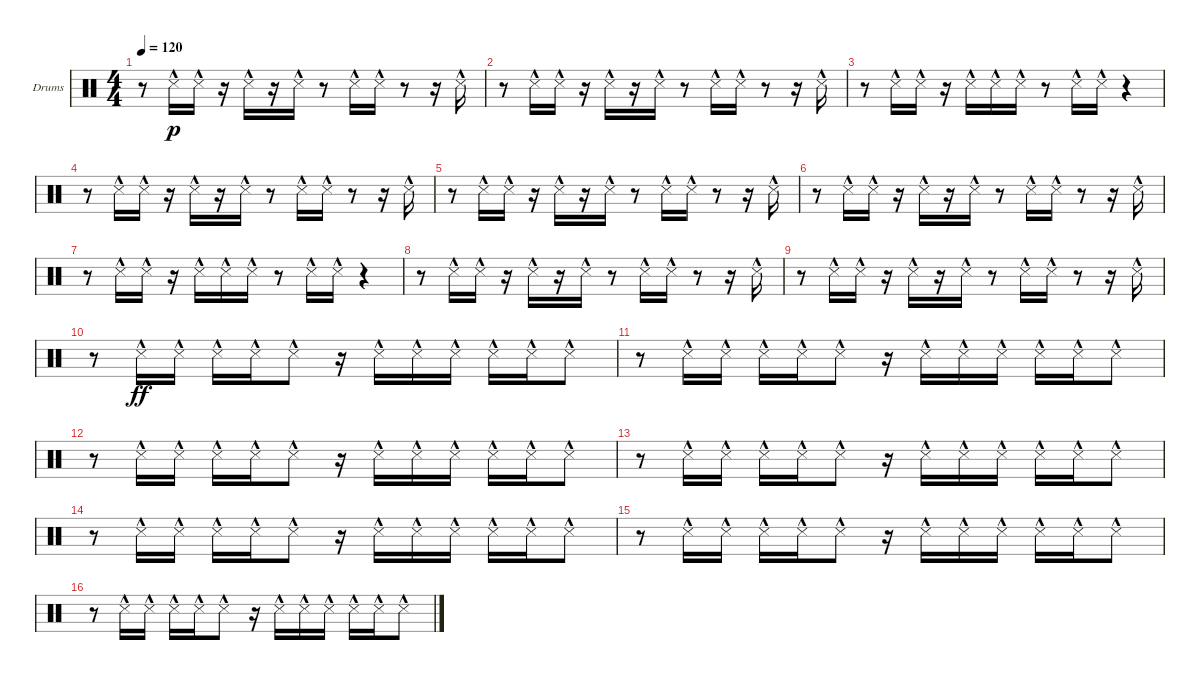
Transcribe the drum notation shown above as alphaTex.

\defaultSystemsLayout 4
\bracketExtendMode nobrackets
\firstSystemTrackNameOrientation horizontal
\otherSystemsTrackNameOrientation horizontal
\track ("Drumkit" "Drums") {instrument percussion}
\staff {score}
\articulation defaults
\ts (4 4)
\tempo 120
\clef neutral
\ks c
r.8{dy p} "Snare (side stick) 3"{hac}.16 "Snare (side stick) 3"{hac}.16 r.16 "Snare (side stick) 3"{hac}.16 r.16 "Snare (side stick) 3"{hac}.16 r.8 "Snare (side stick) 3"{hac}.16 "Snare (side stick) 3"{hac}.16 r.8 r.16 "Snare (side stick) 3"{hac}.16 |
r.8 "Snare (side stick) 3"{hac}.16 "Snare (side stick) 3"{hac}.16 r.16 "Snare (side stick) 3"{hac}.16 r.16 "Snare (side stick) 3"{hac}.16 r.8 "Snare (side stick) 3"{hac}.16 "Snare (side stick) 3"{hac}.16 r.8 r.16 "Snare (side stick) 3"{hac}.16 |
r.8 "Snare (side stick) 3"{hac}.16 "Snare (side stick) 3"{hac}.16 r.16 "Snare (side stick) 3"{hac}.16 "Snare (side stick) 3"{hac}.16 "Snare (side stick) 3"{hac}.16 r.8 "Snare (side stick) 3"{hac}.16 "Snare (side stick) 3"{hac}.16 r.4 |
r.8 "Snare (side stick) 3"{hac}.16 "Snare (side stick) 3"{hac}.16 r.16 "Snare (side stick) 3"{hac}.16 r.16 "Snare (side stick) 3"{hac}.16 r.8 "Snare (side stick) 3"{hac}.16 "Snare (side stick) 3"{hac}.16 r.8 r.16 "Snare (side stick) 3"{hac}.16 |
r.8 "Snare (side stick) 3"{hac}.16 "Snare (side stick) 3"{hac}.16 r.16 "Snare (side stick) 3"{hac}.16 r.16 "Snare (side stick) 3"{hac}.16 r.8 "Snare (side stick) 3"{hac}.16 "Snare (side stick) 3"{hac}.16 r.8 r.16 "Snare (side stick) 3"{hac}.16 |
r.8 "Snare (side stick) 3"{hac}.16 "Snare (side stick) 3"{hac}.16 r.16 "Snare (side stick) 3"{hac}.16 r.16 "Snare (side stick) 3"{hac}.16 r.8 "Snare (side stick) 3"{hac}.16 "Snare (side stick) 3"{hac}.16 r.8 r.16 "Snare (side stick) 3"{hac}.16 |
r.8 "Snare (side stick) 3"{hac}.16 "Snare (side stick) 3"{hac}.16 r.16 "Snare (side stick) 3"{hac}.16 "Snare (side stick) 3"{hac}.16 "Snare (side stick) 3"{hac}.16 r.8 "Snare (side stick) 3"{hac}.16 "Snare (side stick) 3"{hac}.16 r.4 |
r.8 "Snare (side stick) 3"{hac}.16 "Snare (side stick) 3"{hac}.16 r.16 "Snare (side stick) 3"{hac}.16 r.16 "Snare (side stick) 3"{hac}.16 r.8 "Snare (side stick) 3"{hac}.16 "Snare (side stick) 3"{hac}.16 r.8 r.16 "Snare (side stick) 3"{hac}.16 |
r.8 "Snare (side stick) 3"{hac}.16 "Snare (side stick) 3"{hac}.16 r.16 "Snare (side stick) 3"{hac}.16 r.16 "Snare (side stick) 3"{hac}.16 r.8 "Snare (side stick) 3"{hac}.16 "Snare (side stick) 3"{hac}.16 r.8 r.16 "Snare (side stick) 3"{hac}.16 |
r.8 "Snare (side stick) 3"{hac}.16{dy ff} "Snare (side stick) 3"{hac}.16 "Snare (side stick) 3"{hac}.16 "Snare (side stick) 3"{hac}.16 "Snare (side stick) 3"{hac}.8 r.16 "Snare (side stick) 3"{hac}.16 "Snare (side stick) 3"{hac}.16 "Snare (side stick) 3"{hac}.16 "Snare (side stick) 3"{hac}.16 "Snare (side stick) 3"{hac}.16 "Snare (side stick) 3"{hac}.8 |
r.8 "Snare (side stick) 3"{hac}.16 "Snare (side stick) 3"{hac}.16 "Snare (side stick) 3"{hac}.16 "Snare (side stick) 3"{hac}.16 "Snare (side stick) 3"{hac}.8 r.16 "Snare (side stick) 3"{hac}.16 "Snare (side stick) 3"{hac}.16 "Snare (side stick) 3"{hac}.16 "Snare (side stick) 3"{hac}.16 "Snare (side stick) 3"{hac}.16 "Snare (side stick) 3"{hac}.8 |
r.8 "Snare (side stick) 3"{hac}.16 "Snare (side stick) 3"{hac}.16 "Snare (side stick) 3"{hac}.16 "Snare (side stick) 3"{hac}.16 "Snare (side stick) 3"{hac}.8 r.16 "Snare (side stick) 3"{hac}.16 "Snare (side stick) 3"{hac}.16 "Snare (side stick) 3"{hac}.16 "Snare (side stick) 3"{hac}.16 "Snare (side stick) 3"{hac}.16 "Snare (side stick) 3"{hac}.8 |
r.8 "Snare (side stick) 3"{hac}.16 "Snare (side stick) 3"{hac}.16 "Snare (side stick) 3"{hac}.16 "Snare (side stick) 3"{hac}.16 "Snare (side stick) 3"{hac}.8 r.16 "Snare (side stick) 3"{hac}.16 "Snare (side stick) 3"{hac}.16 "Snare (side stick) 3"{hac}.16 "Snare (side stick) 3"{hac}.16 "Snare (side stick) 3"{hac}.16 "Snare (side stick) 3"{hac}.8 |
r.8 "Snare (side stick) 3"{hac}.16 "Snare (side stick) 3"{hac}.16 "Snare (side stick) 3"{hac}.16 "Snare (side stick) 3"{hac}.16 "Snare (side stick) 3"{hac}.8 r.16 "Snare (side stick) 3"{hac}.16 "Snare (side stick) 3"{hac}.16 "Snare (side stick) 3"{hac}.16 "Snare (side stick) 3"{hac}.16 "Snare (side stick) 3"{hac}.16 "Snare (side stick) 3"{hac}.8 |
r.8 "Snare (side stick) 3"{hac}.16 "Snare (side stick) 3"{hac}.16 "Snare (side stick) 3"{hac}.16 "Snare (side stick) 3"{hac}.16 "Snare (side stick) 3"{hac}.8 r.16 "Snare (side stick) 3"{hac}.16 "Snare (side stick) 3"{hac}.16 "Snare (side stick) 3"{hac}.16 "Snare (side stick) 3"{hac}.16 "Snare (side stick) 3"{hac}.16 "Snare (side stick) 3"{hac}.8 |
r.8 "Snare (side stick) 3"{hac}.16 "Snare (side stick) 3"{hac}.16 "Snare (side stick) 3"{hac}.16 "Snare (side stick) 3"{hac}.16 "Snare (side stick) 3"{hac}.8 r.16 "Snare (side stick) 3"{hac}.16 "Snare (side stick) 3"{hac}.16 "Snare (side stick) 3"{hac}.16 "Snare (side stick) 3"{hac}.16 "Snare (side stick) 3"{hac}.16 "Snare (side stick) 3"{hac}.8
